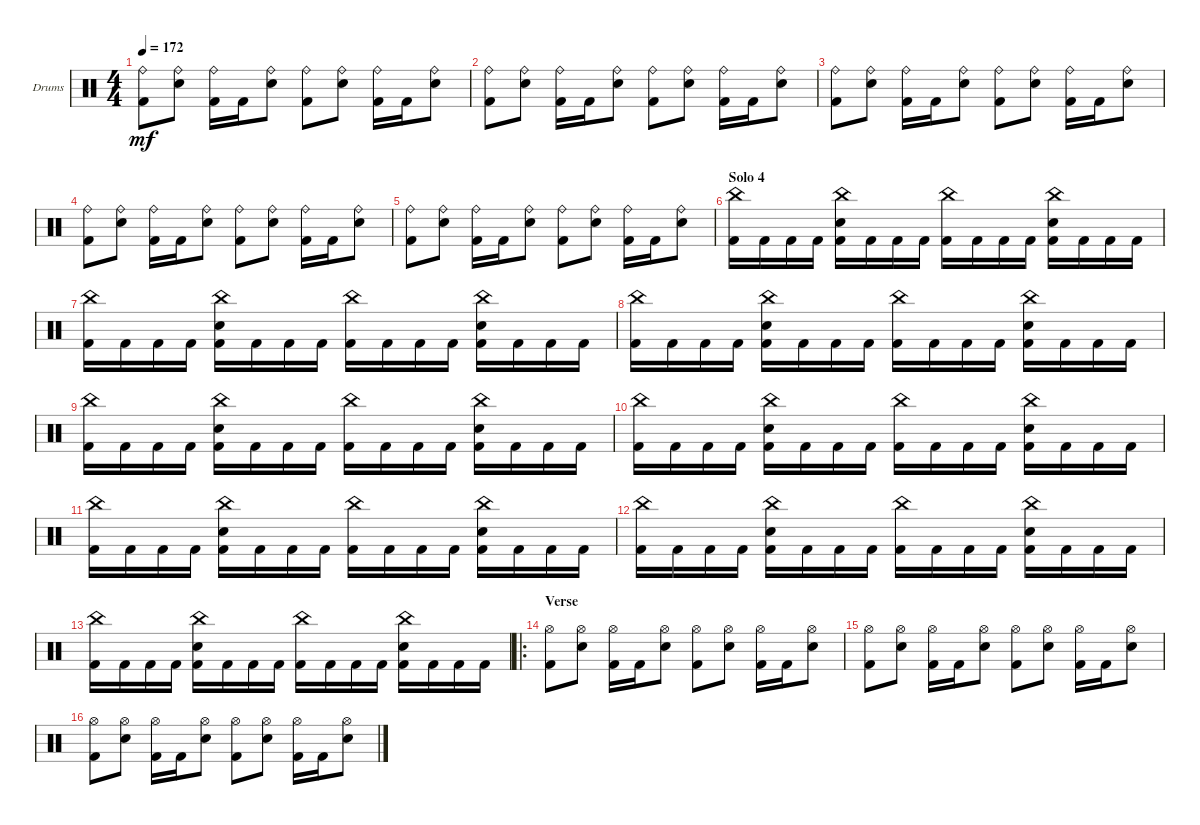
\bracketExtendMode groupsimilarinstruments
\firstSystemTrackNameOrientation horizontal
\otherSystemsTrackNameOrientation horizontal
\track ("Drumkit" "Drums") {instrument percussion}
\staff {score}
\articulation defaults
\ts (4 4)
\tempo 172
\clef neutral
\ks c
("Kick (hit) 2" "Ride (bell)").8{dy mf} ("Snare (hit) 2" "Ride (bell)").8 ("Kick (hit) 2" "Ride (bell)").16 "Kick (hit) 2".16 ("Snare (hit) 2" "Ride (bell)").8 ("Kick (hit) 2" "Ride (bell)").8 ("Snare (hit) 2" "Ride (bell)").8 ("Kick (hit) 2" "Ride (bell)").16 "Kick (hit) 2".16 ("Snare (hit) 2" "Ride (bell)").8 |
("Kick (hit) 2" "Ride (bell)").8 ("Snare (hit) 2" "Ride (bell)").8 ("Kick (hit) 2" "Ride (bell)").16 "Kick (hit) 2".16 ("Snare (hit) 2" "Ride (bell)").8 ("Kick (hit) 2" "Ride (bell)").8 ("Snare (hit) 2" "Ride (bell)").8 ("Kick (hit) 2" "Ride (bell)").16 "Kick (hit) 2".16 ("Snare (hit) 2" "Ride (bell)").8 |
("Kick (hit) 2" "Ride (bell)").8 ("Snare (hit) 2" "Ride (bell)").8 ("Kick (hit) 2" "Ride (bell)").16 "Kick (hit) 2".16 ("Snare (hit) 2" "Ride (bell)").8 ("Kick (hit) 2" "Ride (bell)").8 ("Snare (hit) 2" "Ride (bell)").8 ("Kick (hit) 2" "Ride (bell)").16 "Kick (hit) 2".16 ("Snare (hit) 2" "Ride (bell)").8 |
("Kick (hit) 2" "Ride (bell)").8 ("Snare (hit) 2" "Ride (bell)").8 ("Kick (hit) 2" "Ride (bell)").16 "Kick (hit) 2".16 ("Snare (hit) 2" "Ride (bell)").8 ("Kick (hit) 2" "Ride (bell)").8 ("Snare (hit) 2" "Ride (bell)").8 ("Kick (hit) 2" "Ride (bell)").16 "Kick (hit) 2".16 ("Snare (hit) 2" "Ride (bell)").8 |
("Kick (hit) 2" "Ride (bell)").8 ("Snare (hit) 2" "Ride (bell)").8 ("Kick (hit) 2" "Ride (bell)").16 "Kick (hit) 2".16 ("Snare (hit) 2" "Ride (bell)").8 ("Kick (hit) 2" "Ride (bell)").8 ("Snare (hit) 2" "Ride (bell)").8 ("Kick (hit) 2" "Ride (bell)").16 "Kick (hit) 2".16 ("Snare (hit) 2" "Ride (bell)").8 |
\section ("" "Solo 4")
("Kick (hit) 2" "China (hit)").16 "Kick (hit) 2".16 "Kick (hit) 2".16 "Kick (hit) 2".16 ("Kick (hit) 2" "China (hit)" "Snare (hit) 2").16 "Kick (hit) 2".16 "Kick (hit) 2".16 "Kick (hit) 2".16 ("Kick (hit) 2" "China (hit)").16 "Kick (hit) 2".16 "Kick (hit) 2".16 "Kick (hit) 2".16 ("Kick (hit) 2" "China (hit)" "Snare (hit) 2").16 "Kick (hit) 2".16 "Kick (hit) 2".16 "Kick (hit) 2".16 |
("Kick (hit) 2" "China (hit)").16 "Kick (hit) 2".16 "Kick (hit) 2".16 "Kick (hit) 2".16 ("Kick (hit) 2" "China (hit)" "Snare (hit) 2").16 "Kick (hit) 2".16 "Kick (hit) 2".16 "Kick (hit) 2".16 ("Kick (hit) 2" "China (hit)").16 "Kick (hit) 2".16 "Kick (hit) 2".16 "Kick (hit) 2".16 ("Kick (hit) 2" "China (hit)" "Snare (hit) 2").16 "Kick (hit) 2".16 "Kick (hit) 2".16 "Kick (hit) 2".16 |
("Kick (hit) 2" "China (hit)").16 "Kick (hit) 2".16 "Kick (hit) 2".16 "Kick (hit) 2".16 ("Kick (hit) 2" "China (hit)" "Snare (hit) 2").16 "Kick (hit) 2".16 "Kick (hit) 2".16 "Kick (hit) 2".16 ("Kick (hit) 2" "China (hit)").16 "Kick (hit) 2".16 "Kick (hit) 2".16 "Kick (hit) 2".16 ("Kick (hit) 2" "China (hit)" "Snare (hit) 2").16 "Kick (hit) 2".16 "Kick (hit) 2".16 "Kick (hit) 2".16 |
("Kick (hit) 2" "China (hit)").16 "Kick (hit) 2".16 "Kick (hit) 2".16 "Kick (hit) 2".16 ("Kick (hit) 2" "China (hit)" "Snare (hit) 2").16 "Kick (hit) 2".16 "Kick (hit) 2".16 "Kick (hit) 2".16 ("Kick (hit) 2" "China (hit)").16 "Kick (hit) 2".16 "Kick (hit) 2".16 "Kick (hit) 2".16 ("Kick (hit) 2" "China (hit)" "Snare (hit) 2").16 "Kick (hit) 2".16 "Kick (hit) 2".16 "Kick (hit) 2".16 |
("Kick (hit) 2" "China (hit)").16 "Kick (hit) 2".16 "Kick (hit) 2".16 "Kick (hit) 2".16 ("Kick (hit) 2" "China (hit)" "Snare (hit) 2").16 "Kick (hit) 2".16 "Kick (hit) 2".16 "Kick (hit) 2".16 ("Kick (hit) 2" "China (hit)").16 "Kick (hit) 2".16 "Kick (hit) 2".16 "Kick (hit) 2".16 ("Kick (hit) 2" "China (hit)" "Snare (hit) 2").16 "Kick (hit) 2".16 "Kick (hit) 2".16 "Kick (hit) 2".16 |
("Kick (hit) 2" "China (hit)").16 "Kick (hit) 2".16 "Kick (hit) 2".16 "Kick (hit) 2".16 ("Kick (hit) 2" "China (hit)" "Snare (hit) 2").16 "Kick (hit) 2".16 "Kick (hit) 2".16 "Kick (hit) 2".16 ("Kick (hit) 2" "China (hit)").16 "Kick (hit) 2".16 "Kick (hit) 2".16 "Kick (hit) 2".16 ("Kick (hit) 2" "China (hit)" "Snare (hit) 2").16 "Kick (hit) 2".16 "Kick (hit) 2".16 "Kick (hit) 2".16 |
("Kick (hit) 2" "China (hit)").16 "Kick (hit) 2".16 "Kick (hit) 2".16 "Kick (hit) 2".16 ("Kick (hit) 2" "China (hit)" "Snare (hit) 2").16 "Kick (hit) 2".16 "Kick (hit) 2".16 "Kick (hit) 2".16 ("Kick (hit) 2" "China (hit)").16 "Kick (hit) 2".16 "Kick (hit) 2".16 "Kick (hit) 2".16 ("Kick (hit) 2" "China (hit)" "Snare (hit) 2").16 "Kick (hit) 2".16 "Kick (hit) 2".16 "Kick (hit) 2".16 |
("Kick (hit) 2" "China (hit)").16 "Kick (hit) 2".16 "Kick (hit) 2".16 "Kick (hit) 2".16 ("Kick (hit) 2" "China (hit)" "Snare (hit) 2").16 "Kick (hit) 2".16 "Kick (hit) 2".16 "Kick (hit) 2".16 ("Kick (hit) 2" "China (hit)").16 "Kick (hit) 2".16 "Kick (hit) 2".16 "Kick (hit) 2".16 ("Kick (hit) 2" "China (hit)" "Snare (hit) 2").16 "Kick (hit) 2".16 "Kick (hit) 2".16 "Kick (hit) 2".16 |
\ro
\section ("" "Verse")
("Kick (hit) 2" "Hi-Hat (open)").8 ("Snare (hit) 2" "Hi-Hat (open)").8 ("Kick (hit) 2" "Hi-Hat (open)").16 "Kick (hit) 2".16 ("Snare (hit) 2" "Hi-Hat (open)").8 ("Kick (hit) 2" "Hi-Hat (open)").8 ("Snare (hit) 2" "Hi-Hat (open)").8 ("Kick (hit) 2" "Hi-Hat (open)").16 "Kick (hit) 2".16 ("Snare (hit) 2" "Hi-Hat (open)").8 |
("Kick (hit) 2" "Hi-Hat (open)").8 ("Snare (hit) 2" "Hi-Hat (open)").8 ("Kick (hit) 2" "Hi-Hat (open)").16 "Kick (hit) 2".16 ("Snare (hit) 2" "Hi-Hat (open)").8 ("Kick (hit) 2" "Hi-Hat (open)").8 ("Snare (hit) 2" "Hi-Hat (open)").8 ("Kick (hit) 2" "Hi-Hat (open)").16 "Kick (hit) 2".16 ("Snare (hit) 2" "Hi-Hat (open)").8 |
("Kick (hit) 2" "Hi-Hat (open)").8 ("Snare (hit) 2" "Hi-Hat (open)").8 ("Kick (hit) 2" "Hi-Hat (open)").16 "Kick (hit) 2".16 ("Snare (hit) 2" "Hi-Hat (open)").8 ("Kick (hit) 2" "Hi-Hat (open)").8 ("Snare (hit) 2" "Hi-Hat (open)").8 ("Kick (hit) 2" "Hi-Hat (open)").16 "Kick (hit) 2".16 ("Snare (hit) 2" "Hi-Hat (open)").8
